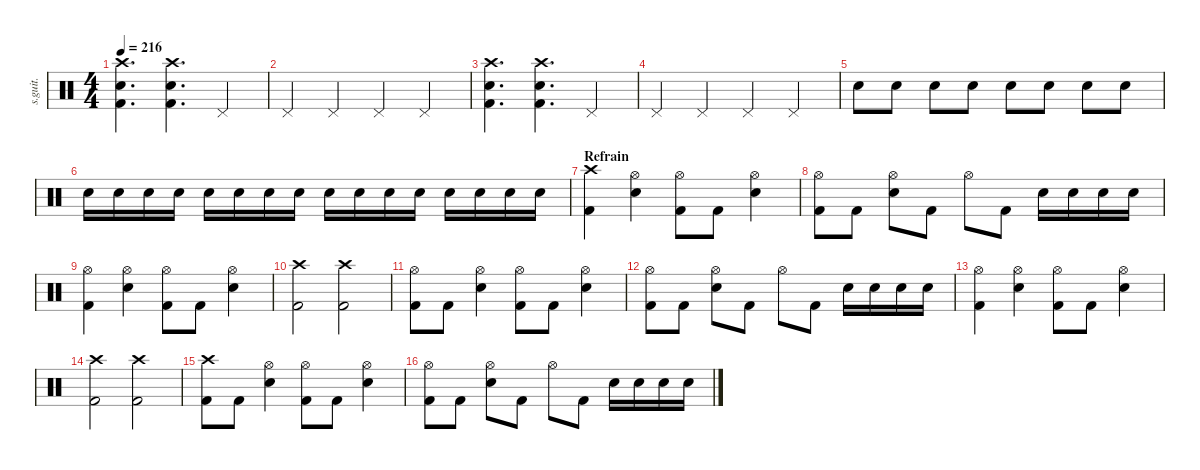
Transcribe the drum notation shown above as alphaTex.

\defaultSystemsLayout 4
\hideDynamics
\bracketExtendMode nobrackets
\track ("Jesus Bonehead | Drums" "s.guit.") {instrument percussion}
\staff {score}
\articulation defaults
\ts (4 4)
\tempo 216
\clef neutral
\ks c
("Crash high (hit)" "Snare (hit) 2" "Kick (hit) 2").4{d dy f} ("Crash high (hit)" "Snare (hit) 2" "Kick (hit) 2").4{d} "Pedal Hi-Hat (hit)".4 |
"Pedal Hi-Hat (hit)".4 "Pedal Hi-Hat (hit)".4 "Pedal Hi-Hat (hit)".4 "Pedal Hi-Hat (hit)".4 |
("Crash high (hit)" "Snare (hit) 2" "Kick (hit) 2").4{d} ("Crash high (hit)" "Snare (hit) 2" "Kick (hit) 2").4{d} "Pedal Hi-Hat (hit)".4 |
"Pedal Hi-Hat (hit)".4 "Pedal Hi-Hat (hit)".4 "Pedal Hi-Hat (hit)".4 "Pedal Hi-Hat (hit)".4 |
"Snare (hit) 2".8 "Snare (hit) 2".8 "Snare (hit) 2".8 "Snare (hit) 2".8 "Snare (hit) 2".8 "Snare (hit) 2".8 "Snare (hit) 2".8 "Snare (hit) 2".8 |
"Snare (hit) 2".16 "Snare (hit) 2".16 "Snare (hit) 2".16 "Snare (hit) 2".16 "Snare (hit) 2".16 "Snare (hit) 2".16 "Snare (hit) 2".16 "Snare (hit) 2".16 "Snare (hit) 2".16 "Snare (hit) 2".16 "Snare (hit) 2".16 "Snare (hit) 2".16 "Snare (hit) 2".16 "Snare (hit) 2".16 "Snare (hit) 2".16 "Snare (hit) 2".16 |
\section ("" "Refrain")
("Crash high (hit)" "Kick (hit) 2").4 ("Hi-Hat (open)" "Snare (hit) 2").4 ("Hi-Hat (open)" "Kick (hit) 2").8 "Kick (hit) 2".8 ("Hi-Hat (open)" "Snare (hit) 2").4 |
("Hi-Hat (open)" "Kick (hit) 2").8 "Kick (hit) 2".8 ("Hi-Hat (open)" "Snare (hit) 2").8 "Kick (hit) 2".8 "Hi-Hat (open)".8 "Kick (hit) 2".8 "Snare (hit) 2".16 "Snare (hit) 2".16 "Snare (hit) 2".16 "Snare (hit) 2".16 |
("Hi-Hat (open)" "Kick (hit) 2").4 ("Hi-Hat (open)" "Snare (hit) 2").4 ("Hi-Hat (open)" "Kick (hit) 2").8 "Kick (hit) 2".8 ("Hi-Hat (open)" "Snare (hit) 2").4 |
("Crash high (hit)" "Kick (hit) 2").2 ("Crash high (hit)" "Kick (hit) 2").2 |
("Hi-Hat (open)" "Kick (hit) 2").8 "Kick (hit) 2".8 ("Hi-Hat (open)" "Snare (hit) 2").4 ("Hi-Hat (open)" "Kick (hit) 2").8 "Kick (hit) 2".8 ("Hi-Hat (open)" "Snare (hit) 2").4 |
("Hi-Hat (open)" "Kick (hit) 2").8 "Kick (hit) 2".8 ("Hi-Hat (open)" "Snare (hit) 2").8 "Kick (hit) 2".8 "Hi-Hat (open)".8 "Kick (hit) 2".8 "Snare (hit) 2".16 "Snare (hit) 2".16 "Snare (hit) 2".16 "Snare (hit) 2".16 |
("Hi-Hat (open)" "Kick (hit) 2").4 ("Hi-Hat (open)" "Snare (hit) 2").4 ("Hi-Hat (open)" "Kick (hit) 2").8 "Kick (hit) 2".8 ("Hi-Hat (open)" "Snare (hit) 2").4 |
("Crash high (hit)" "Kick (hit) 2").2 ("Crash high (hit)" "Kick (hit) 2").2 |
("Crash high (hit)" "Kick (hit) 2").8 "Kick (hit) 2".8 ("Hi-Hat (open)" "Snare (hit) 2").4 ("Hi-Hat (open)" "Kick (hit) 2").8 "Kick (hit) 2".8 ("Hi-Hat (open)" "Snare (hit) 2").4 |
("Hi-Hat (open)" "Kick (hit) 2").8 "Kick (hit) 2".8 ("Hi-Hat (open)" "Snare (hit) 2").8 "Kick (hit) 2".8 "Hi-Hat (open)".8 "Kick (hit) 2".8 "Snare (hit) 2".16 "Snare (hit) 2".16 "Snare (hit) 2".16 "Snare (hit) 2".16
